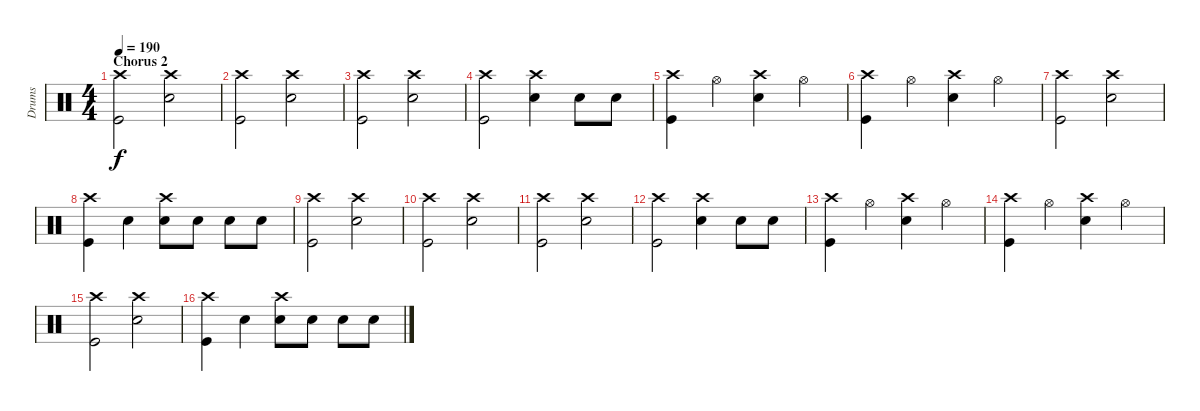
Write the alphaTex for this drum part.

\track ("Drums" "Drums") {instrument percussion}
\staff {score}
\articulation defaults
\ts (4 4)
\section ("" "Chorus 2")
\tempo 190
\clef neutral
\ks c
("Crash high (hit)" "Kick (hit)").2{dy f} ("Crash high (hit)" "Snare (hit) 2").2 |
("Crash high (hit)" "Kick (hit)").2 ("Crash high (hit)" "Snare (hit) 2").2 |
("Crash high (hit)" "Kick (hit)").2 ("Crash high (hit)" "Snare (hit) 2").2 |
("Crash high (hit)" "Kick (hit)").2 ("Crash high (hit)" "Snare (hit) 2").4 "Snare (hit) 2".8 "Snare (hit) 2".8 |
("Crash high (hit)" "Kick (hit)").4 "Hi-Hat (open)".4 ("Crash high (hit)" "Snare (hit) 2").4 "Hi-Hat (open)".4 |
("Crash high (hit)" "Kick (hit)").4 "Hi-Hat (open)".4 ("Crash high (hit)" "Snare (hit) 2").4 "Hi-Hat (open)".4 |
("Crash high (hit)" "Kick (hit)").2 ("Crash high (hit)" "Snare (hit) 2").2 |
("Crash high (hit)" "Kick (hit)").4 "Snare (hit) 2".4 ("Crash high (hit)" "Snare (hit) 2").8 "Snare (hit) 2".8 "Snare (hit) 2".8 "Snare (hit) 2".8 |
("Crash high (hit)" "Kick (hit)").2 ("Crash high (hit)" "Snare (hit) 2").2 |
("Crash high (hit)" "Kick (hit)").2 ("Crash high (hit)" "Snare (hit) 2").2 |
("Crash high (hit)" "Kick (hit)").2 ("Crash high (hit)" "Snare (hit) 2").2 |
("Crash high (hit)" "Kick (hit)").2 ("Crash high (hit)" "Snare (hit) 2").4 "Snare (hit) 2".8 "Snare (hit) 2".8 |
("Crash high (hit)" "Kick (hit)").4 "Hi-Hat (open)".4 ("Crash high (hit)" "Snare (hit) 2").4 "Hi-Hat (open)".4 |
("Crash high (hit)" "Kick (hit)").4 "Hi-Hat (open)".4 ("Crash high (hit)" "Snare (hit) 2").4 "Hi-Hat (open)".4 |
("Crash high (hit)" "Kick (hit)").2 ("Crash high (hit)" "Snare (hit) 2").2 |
("Crash high (hit)" "Kick (hit)").4 "Snare (hit) 2".4 ("Crash high (hit)" "Snare (hit) 2").8 "Snare (hit) 2".8 "Snare (hit) 2".8 "Snare (hit) 2".8
